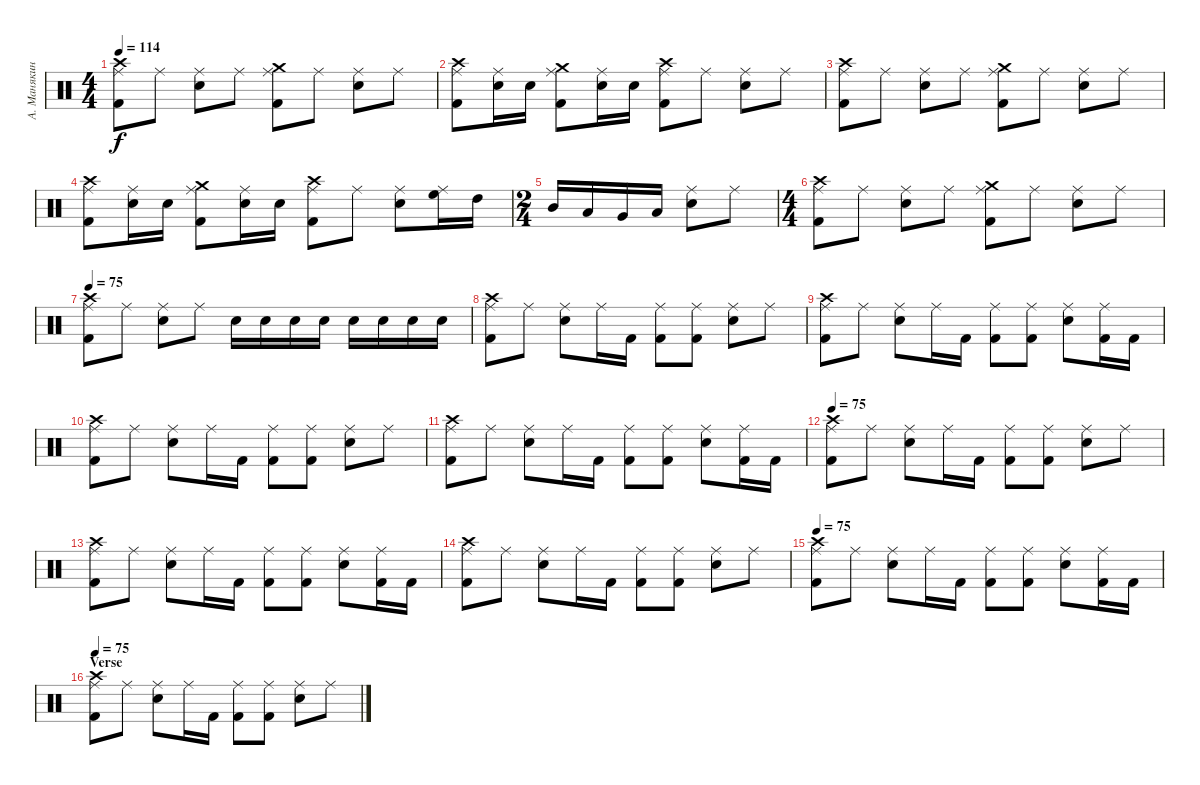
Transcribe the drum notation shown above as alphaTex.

\track ("А. Манякин" "А. Манякин") {instrument percussion}
\staff {score}
\articulation defaults
\ts (4 4)
\tempo 114
\clef neutral
\ks c
("Kick (hit) 2" "Crash high (hit)" "Ride (middle)").8{dy f} "Ride (middle)".8 ("Electric Snare (hit)" "Ride (middle)").8 "Ride (middle)".8 ("Kick (hit) 2" "Crash medium (hit)" "Ride (middle)").8 "Ride (middle)".8 ("Electric Snare (hit)" "Ride (middle)").8 "Ride (middle)".8 |
("Kick (hit) 2" "Crash high (hit)" "Ride (middle)").8 ("Electric Snare (hit)" "Ride (middle)").16 "Electric Snare (hit)".16 ("Kick (hit) 2" "Crash medium (hit)" "Ride (middle)").8 ("Electric Snare (hit)" "Ride (middle)").16 "Electric Snare (hit)".16 ("Kick (hit) 2" "Crash high (hit)" "Ride (middle)").8 "Ride (middle)".8 ("Electric Snare (hit)" "Ride (middle)").8 "Ride (middle)".8 |
("Kick (hit) 2" "Crash high (hit)" "Ride (middle)").8 "Ride (middle)".8 ("Electric Snare (hit)" "Ride (middle)").8 "Ride (middle)".8 ("Kick (hit) 2" "Crash medium (hit)" "Ride (middle)").8 "Ride (middle)".8 ("Electric Snare (hit)" "Ride (middle)").8 "Ride (middle)".8 |
("Kick (hit) 2" "Crash high (hit)" "Ride (middle)").8 ("Electric Snare (hit)" "Ride (middle)").16 "Electric Snare (hit)".16 ("Kick (hit) 2" "Crash medium (hit)" "Ride (middle)").8 ("Electric Snare (hit)" "Ride (middle)").16 "Electric Snare (hit)".16 ("Kick (hit) 2" "Crash high (hit)" "Ride (middle)").8 "Ride (middle)".8 ("Electric Snare (hit)" "Ride (middle)").8 ("High Floor Tom (hit)" "Ride (middle)").16 "High Tom (hit)".16 |
\ts (2 4)
"Mid Tom (hit)".16 "Low Tom (hit)".16 "Very Low Tom (hit)".16 "Low Floor Tom (hit)".16 ("Electric Snare (hit)" "Ride (middle)").8 "Ride (middle)".8 |
\ts (4 4)
("Kick (hit) 2" "Crash high (hit)" "Ride (middle)").8 "Ride (middle)".8 ("Electric Snare (hit)" "Ride (middle)").8 "Ride (middle)".8 ("Kick (hit) 2" "Crash medium (hit)" "Ride (middle)").8 "Ride (middle)".8 ("Electric Snare (hit)" "Ride (middle)").8 "Ride (middle)".8 |
\tempo 75
("Kick (hit) 2" "Crash high (hit)" "Ride (middle)").8 "Ride (middle)".8 ("Electric Snare (hit)" "Ride (middle)").8 "Ride (middle)".8 "Electric Snare (hit)".16 "Electric Snare (hit)".16 "Electric Snare (hit)".16 "Electric Snare (hit)".16 "Electric Snare (hit)".16 "Electric Snare (hit)".16 "Electric Snare (hit)".16 "Electric Snare (hit)".16 |
("Kick (hit) 2" "Crash high (hit)" "Ride (middle)").8 "Ride (middle)".8 ("Electric Snare (hit)" "Ride (middle)").8 "Ride (middle)".16 "Kick (hit) 2".16 ("Kick (hit) 2" "Ride (middle)").8 ("Kick (hit) 2" "Ride (middle)").8 ("Electric Snare (hit)" "Ride (middle)").8 "Ride (middle)".8 |
("Kick (hit) 2" "Crash high (hit)" "Ride (middle)").8 "Ride (middle)".8 ("Electric Snare (hit)" "Ride (middle)").8 "Ride (middle)".16 "Kick (hit) 2".16 ("Kick (hit) 2" "Ride (middle)").8 ("Kick (hit) 2" "Ride (middle)").8 ("Electric Snare (hit)" "Ride (middle)").8 ("Kick (hit) 2" "Ride (middle)").16 "Kick (hit) 2".16 |
("Kick (hit) 2" "Crash high (hit)" "Ride (middle)").8 "Ride (middle)".8 ("Electric Snare (hit)" "Ride (middle)").8 "Ride (middle)".16 "Kick (hit) 2".16 ("Kick (hit) 2" "Ride (middle)").8 ("Kick (hit) 2" "Ride (middle)").8 ("Electric Snare (hit)" "Ride (middle)").8 "Ride (middle)".8 |
("Kick (hit) 2" "Crash high (hit)" "Ride (middle)").8 "Ride (middle)".8 ("Electric Snare (hit)" "Ride (middle)").8 "Ride (middle)".16 "Kick (hit) 2".16 ("Kick (hit) 2" "Ride (middle)").8 ("Kick (hit) 2" "Ride (middle)").8 ("Electric Snare (hit)" "Ride (middle)").8 ("Kick (hit) 2" "Ride (middle)").16 "Kick (hit) 2".16 |
\tempo 75
("Kick (hit) 2" "Crash high (hit)" "Ride (middle)").8 "Ride (middle)".8 ("Electric Snare (hit)" "Ride (middle)").8 "Ride (middle)".16 "Kick (hit) 2".16 ("Kick (hit) 2" "Ride (middle)").8 ("Kick (hit) 2" "Ride (middle)").8 ("Electric Snare (hit)" "Ride (middle)").8 "Ride (middle)".8 |
("Kick (hit) 2" "Crash high (hit)" "Ride (middle)").8 "Ride (middle)".8 ("Electric Snare (hit)" "Ride (middle)").8 "Ride (middle)".16 "Kick (hit) 2".16 ("Kick (hit) 2" "Ride (middle)").8 ("Kick (hit) 2" "Ride (middle)").8 ("Electric Snare (hit)" "Ride (middle)").8 ("Kick (hit) 2" "Ride (middle)").16 "Kick (hit) 2".16 |
("Kick (hit) 2" "Crash high (hit)" "Ride (middle)").8 "Ride (middle)".8 ("Electric Snare (hit)" "Ride (middle)").8 "Ride (middle)".16 "Kick (hit) 2".16 ("Kick (hit) 2" "Ride (middle)").8 ("Kick (hit) 2" "Ride (middle)").8 ("Electric Snare (hit)" "Ride (middle)").8 "Ride (middle)".8 |
\tempo 75
("Kick (hit) 2" "Crash high (hit)" "Ride (middle)").8 "Ride (middle)".8 ("Electric Snare (hit)" "Ride (middle)").8 "Ride (middle)".16 "Kick (hit) 2".16 ("Kick (hit) 2" "Ride (middle)").8 ("Kick (hit) 2" "Ride (middle)").8 ("Electric Snare (hit)" "Ride (middle)").8 ("Kick (hit) 2" "Ride (middle)").16 "Kick (hit) 2".16 |
\section ("" "Verse")
\tempo 75
("Kick (hit) 2" "Crash high (hit)" "Ride (middle)").8 "Ride (middle)".8 ("Electric Snare (hit)" "Ride (middle)").8 "Ride (middle)".16 "Kick (hit) 2".16 ("Kick (hit) 2" "Ride (middle)").8 ("Kick (hit) 2" "Ride (middle)").8 ("Electric Snare (hit)" "Ride (middle)").8 "Ride (middle)".8
